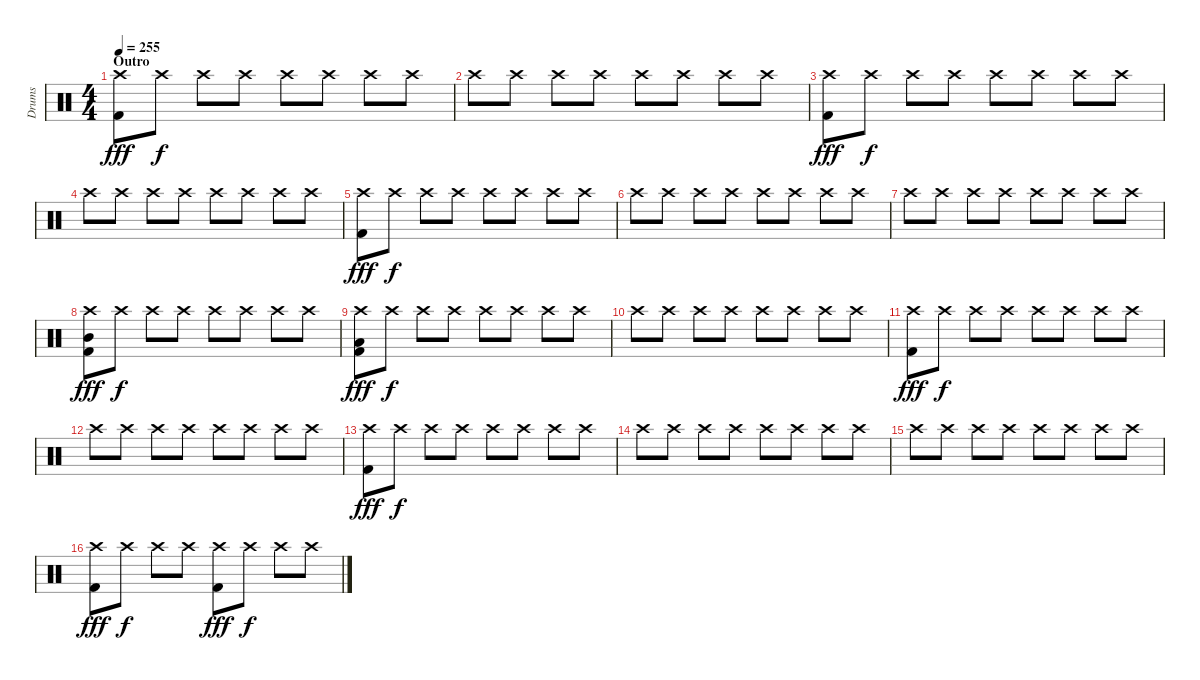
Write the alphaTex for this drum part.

\track ("Drums" "Drums") {instrument percussion}
\staff {score}
\articulation defaults
\ts (4 4)
\section ("" "Outro")
\tempo 255
\clef neutral
\ks c
("Kick (hit) 2" "Crash high (hit)").8{dy fff} "Crash high (hit)".8{dy f} "Crash high (hit)".8 "Crash high (hit)".8 "Crash high (hit)".8 "Crash high (hit)".8 "Crash high (hit)".8 "Crash high (hit)".8 |
"Crash high (hit)".8 "Crash high (hit)".8 "Crash high (hit)".8 "Crash high (hit)".8 "Crash high (hit)".8 "Crash high (hit)".8 "Crash high (hit)".8 "Crash high (hit)".8 |
("Kick (hit) 2" "Crash high (hit)").8{dy fff} "Crash high (hit)".8{dy f} "Crash high (hit)".8 "Crash high (hit)".8 "Crash high (hit)".8 "Crash high (hit)".8 "Crash high (hit)".8 "Crash high (hit)".8 |
"Crash high (hit)".8 "Crash high (hit)".8 "Crash high (hit)".8 "Crash high (hit)".8 "Crash high (hit)".8 "Crash high (hit)".8 "Crash high (hit)".8 "Crash high (hit)".8 |
("Kick (hit) 2" "Crash high (hit)").8{dy fff} "Crash high (hit)".8{dy f} "Crash high (hit)".8 "Crash high (hit)".8 "Crash high (hit)".8 "Crash high (hit)".8 "Crash high (hit)".8 "Crash high (hit)".8 |
"Crash high (hit)".8 "Crash high (hit)".8 "Crash high (hit)".8 "Crash high (hit)".8 "Crash high (hit)".8 "Crash high (hit)".8 "Crash high (hit)".8 "Crash high (hit)".8 |
"Crash high (hit)".8 "Crash high (hit)".8 "Crash high (hit)".8 "Crash high (hit)".8 "Crash high (hit)".8 "Crash high (hit)".8 "Crash high (hit)".8 "Crash high (hit)".8 |
("Kick (hit) 2" "Mid Tom (hit)" "Crash high (hit)").8{dy fff} "Crash high (hit)".8{dy f} "Crash high (hit)".8 "Crash high (hit)".8 "Crash high (hit)".8 "Crash high (hit)".8 "Crash high (hit)".8 "Crash high (hit)".8 |
("Kick (hit) 2" "Low Tom (hit)" "Crash high (hit)").8{dy fff} "Crash high (hit)".8{dy f} "Crash high (hit)".8 "Crash high (hit)".8 "Crash high (hit)".8 "Crash high (hit)".8 "Crash high (hit)".8 "Crash high (hit)".8 |
"Crash high (hit)".8 "Crash high (hit)".8 "Crash high (hit)".8 "Crash high (hit)".8 "Crash high (hit)".8 "Crash high (hit)".8 "Crash high (hit)".8 "Crash high (hit)".8 |
("Kick (hit) 2" "Crash high (hit)").8{dy fff} "Crash high (hit)".8{dy f} "Crash high (hit)".8 "Crash high (hit)".8 "Crash high (hit)".8 "Crash high (hit)".8 "Crash high (hit)".8 "Crash high (hit)".8 |
"Crash high (hit)".8 "Crash high (hit)".8 "Crash high (hit)".8 "Crash high (hit)".8 "Crash high (hit)".8 "Crash high (hit)".8 "Crash high (hit)".8 "Crash high (hit)".8 |
("Kick (hit) 2" "Crash high (hit)").8{dy fff} "Crash high (hit)".8{dy f} "Crash high (hit)".8 "Crash high (hit)".8 "Crash high (hit)".8 "Crash high (hit)".8 "Crash high (hit)".8 "Crash high (hit)".8 |
"Crash high (hit)".8 "Crash high (hit)".8 "Crash high (hit)".8 "Crash high (hit)".8 "Crash high (hit)".8 "Crash high (hit)".8 "Crash high (hit)".8 "Crash high (hit)".8 |
"Crash high (hit)".8 "Crash high (hit)".8 "Crash high (hit)".8 "Crash high (hit)".8 "Crash high (hit)".8 "Crash high (hit)".8 "Crash high (hit)".8 "Crash high (hit)".8 |
("Kick (hit) 2" "Crash high (hit)").8{dy fff} "Crash high (hit)".8{dy f} "Crash high (hit)".8 "Crash high (hit)".8 ("Kick (hit) 2" "Crash high (hit)").8{dy fff} "Crash high (hit)".8{dy f} "Crash high (hit)".8 "Crash high (hit)".8
